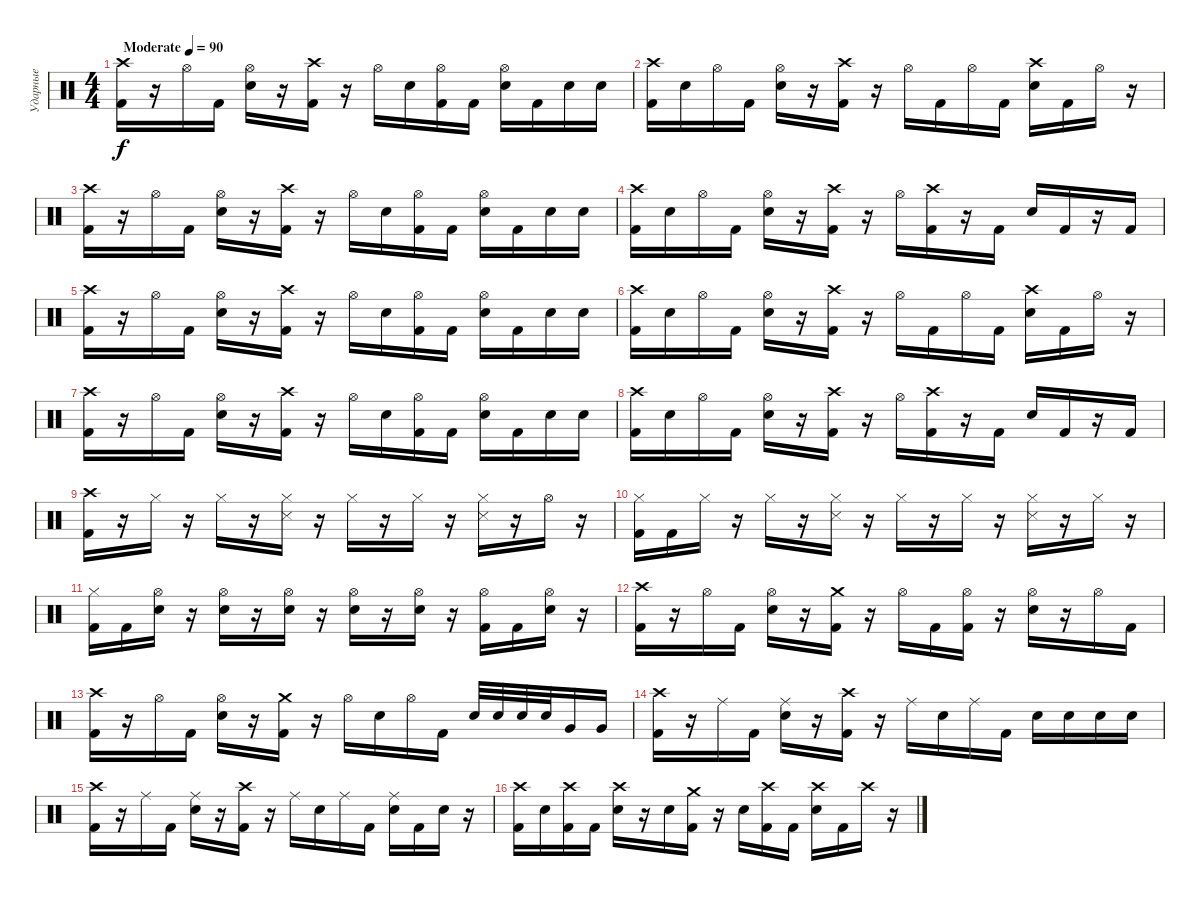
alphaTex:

\track ("Ударные" "Ударные") {instrument percussion}
\staff {score}
\articulation defaults
\ts (4 4)
\tempo (90 "Moderate")
\clef neutral
\ks c
("Crash high (hit)" "Kick (hit) 2").16{dy f} r.16 "Hi-Hat (open)".16 "Kick (hit) 2".16 ("Hi-Hat (open)" "Electric Snare (hit)").16 r.16 ("Crash high (hit)" "Kick (hit) 2").16 r.16 "Hi-Hat (open)".16 "Electric Snare (hit)".16 ("Hi-Hat (open)" "Kick (hit) 2").16 "Kick (hit) 2".16 ("Hi-Hat (open)" "Electric Snare (hit)").16 "Kick (hit) 2".16 "Electric Snare (hit)".16 "Electric Snare (hit)".16 |
("Crash high (hit)" "Kick (hit) 2").16 "Electric Snare (hit)".16 "Hi-Hat (open)".16 "Kick (hit) 2".16 ("Hi-Hat (open)" "Electric Snare (hit)").16 r.16 ("Crash high (hit)" "Kick (hit) 2").16 r.16 "Hi-Hat (open)".16 "Kick (hit) 2".16 "Hi-Hat (open)".16 "Kick (hit) 2".16 ("Crash high (hit)" "Electric Snare (hit)").16 "Kick (hit) 2".16 "Hi-Hat (open)".16 r.16 |
("Crash high (hit)" "Kick (hit) 2").16 r.16 "Hi-Hat (open)".16 "Kick (hit) 2".16 ("Hi-Hat (open)" "Electric Snare (hit)").16 r.16 ("Crash high (hit)" "Kick (hit) 2").16 r.16 "Hi-Hat (open)".16 "Electric Snare (hit)".16 ("Hi-Hat (open)" "Kick (hit) 2").16 "Kick (hit) 2".16 ("Hi-Hat (open)" "Electric Snare (hit)").16 "Kick (hit) 2".16 "Electric Snare (hit)".16 "Electric Snare (hit)".16 |
("Crash high (hit)" "Kick (hit) 2").16 "Electric Snare (hit)".16 "Hi-Hat (open)".16 "Kick (hit) 2".16 ("Hi-Hat (open)" "Electric Snare (hit)").16 r.16 ("Crash high (hit)" "Kick (hit) 2").16 r.16 "Hi-Hat (open)".16 ("Crash high (hit)" "Kick (hit) 2").16 r.16 "Kick (hit) 2".16 "Electric Snare (hit)".16 "Kick (hit) 2".16 r.16 "Kick (hit) 2".16 |
("Crash high (hit)" "Kick (hit) 2").16 r.16 "Hi-Hat (open)".16 "Kick (hit) 2".16 ("Hi-Hat (open)" "Electric Snare (hit)").16 r.16 ("Crash high (hit)" "Kick (hit) 2").16 r.16 "Hi-Hat (open)".16 "Electric Snare (hit)".16 ("Hi-Hat (open)" "Kick (hit) 2").16 "Kick (hit) 2".16 ("Hi-Hat (open)" "Electric Snare (hit)").16 "Kick (hit) 2".16 "Electric Snare (hit)".16 "Electric Snare (hit)".16 |
("Crash high (hit)" "Kick (hit) 2").16 "Electric Snare (hit)".16 "Hi-Hat (open)".16 "Kick (hit) 2".16 ("Hi-Hat (open)" "Electric Snare (hit)").16 r.16 ("Crash high (hit)" "Kick (hit) 2").16 r.16 "Hi-Hat (open)".16 "Kick (hit) 2".16 "Hi-Hat (open)".16 "Kick (hit) 2".16 ("Crash high (hit)" "Electric Snare (hit)").16 "Kick (hit) 2".16 "Hi-Hat (open)".16 r.16 |
("Crash high (hit)" "Kick (hit) 2").16 r.16 "Hi-Hat (open)".16 "Kick (hit) 2".16 ("Hi-Hat (open)" "Electric Snare (hit)").16 r.16 ("Crash high (hit)" "Kick (hit) 2").16 r.16 "Hi-Hat (open)".16 "Electric Snare (hit)".16 ("Hi-Hat (open)" "Kick (hit) 2").16 "Kick (hit) 2".16 ("Hi-Hat (open)" "Electric Snare (hit)").16 "Kick (hit) 2".16 "Electric Snare (hit)".16 "Electric Snare (hit)".16 |
("Crash high (hit)" "Kick (hit) 2").16 "Electric Snare (hit)".16 "Hi-Hat (open)".16 "Kick (hit) 2".16 ("Hi-Hat (open)" "Electric Snare (hit)").16 r.16 ("Crash high (hit)" "Kick (hit) 2").16 r.16 "Hi-Hat (open)".16 ("Crash high (hit)" "Kick (hit) 2").16 r.16 "Kick (hit) 2".16 "Electric Snare (hit)".16 "Kick (hit) 2".16 r.16 "Kick (hit) 2".16 |
("Crash high (hit)" "Kick (hit) 2").16 r.16 "Hi-Hat (closed)".16 r.16 "Hi-Hat (closed)".16 r.16 ("Hi-Hat (closed)" "Snare (side stick) 3").16 r.16 "Hi-Hat (closed)".16 r.16 "Hi-Hat (closed)".16 r.16 ("Hi-Hat (closed)" "Snare (side stick) 3").16 r.16 "Hi-Hat (open)".16 r.16 |
("Hi-Hat (closed)" "Kick (hit) 2").16 "Kick (hit) 2".16 "Hi-Hat (closed)".16 r.16 "Hi-Hat (closed)".16 r.16 ("Hi-Hat (closed)" "Snare (side stick) 3").16 r.16 "Hi-Hat (closed)".16 r.16 "Hi-Hat (closed)".16 r.16 ("Hi-Hat (closed)" "Snare (side stick) 3").16 r.16 "Hi-Hat (closed)".16 r.16 |
("Hi-Hat (closed)" "Kick (hit) 2").16 "Kick (hit) 2".16 ("Hi-Hat (open)" "Electric Snare (hit)").16 r.16 ("Hi-Hat (open)" "Electric Snare (hit)").16 r.16 ("Hi-Hat (open)" "Electric Snare (hit)").16 r.16 ("Hi-Hat (open)" "Electric Snare (hit)").16 r.16 ("Hi-Hat (open)" "Electric Snare (hit)").16 r.16 ("Hi-Hat (open)" "Kick (hit) 2").16 "Kick (hit) 2".16 ("Hi-Hat (open)" "Electric Snare (hit)").16 r.16 |
("Crash high (hit)" "Kick (hit) 2").16 r.16 "Hi-Hat (open)".16 "Kick (hit) 2".16 ("Hi-Hat (open)" "Electric Snare (hit)").16 r.16 ("Crash medium (hit)" "Kick (hit) 2").16 r.16 "Hi-Hat (open)".16 "Kick (hit) 2".16 ("Hi-Hat (open)" "Kick (hit) 2").16 r.16 ("Hi-Hat (open)" "Electric Snare (hit)").16 r.16 "Hi-Hat (open)".16 "Kick (hit) 2".16 |
("Crash high (hit)" "Kick (hit) 2").16 r.16 "Hi-Hat (open)".16 "Kick (hit) 2".16 ("Hi-Hat (open)" "Electric Snare (hit)").16 r.16 ("Crash medium (hit)" "Kick (hit) 2").16 r.16 "Hi-Hat (open)".16 "Electric Snare (hit)".16 "Hi-Hat (open)".16 "Kick (hit) 2".16 "Electric Snare (hit)".32 "Electric Snare (hit)".32 "Electric Snare (hit)".32 "Electric Snare (hit)".32 "Very Low Tom (hit)".16 "Very Low Tom (hit)".16 |
("Crash high (hit)" "Kick (hit) 2").16 r.16 "Ride (middle)".16 "Kick (hit) 2".16 ("Ride (middle)" "Electric Snare (hit)").16 r.16 ("Crash high (hit)" "Kick (hit) 2").16 r.16 "Ride (middle)".16 "Electric Snare (hit)".16 "Ride (middle)".16 "Kick (hit) 2".16 "Electric Snare (hit)".16 "Electric Snare (hit)".16 "Electric Snare (hit)".16 "Electric Snare (hit)".16 |
("Crash high (hit)" "Kick (hit) 2").16 r.16 "Ride (middle)".16 "Kick (hit) 2".16 ("Ride (middle)" "Electric Snare (hit)").16 r.16 ("Crash high (hit)" "Kick (hit) 2").16 r.16 "Ride (middle)".16 "Electric Snare (hit)".16 "Ride (middle)".16 "Kick (hit) 2".16 ("Ride (middle)" "Electric Snare (hit)").16 "Kick (hit) 2".16 "Electric Snare (hit)".16 r.16 |
("Crash high (hit)" "Kick (hit) 2").16 "Electric Snare (hit)".16 ("Crash high (hit)" "Kick (hit) 2").16 "Kick (hit) 2".16 ("Crash high (hit)" "Electric Snare (hit)").16 r.16 "Electric Snare (hit)".16 ("Crash medium (hit)" "Kick (hit) 2").16 r.16 "Electric Snare (hit)".16 ("Crash high (hit)" "Kick (hit) 2").16 "Kick (hit) 2".16 ("Crash high (hit)" "Electric Snare (hit)").16 "Kick (hit) 2".16 "Crash high (hit)".16 r.16
